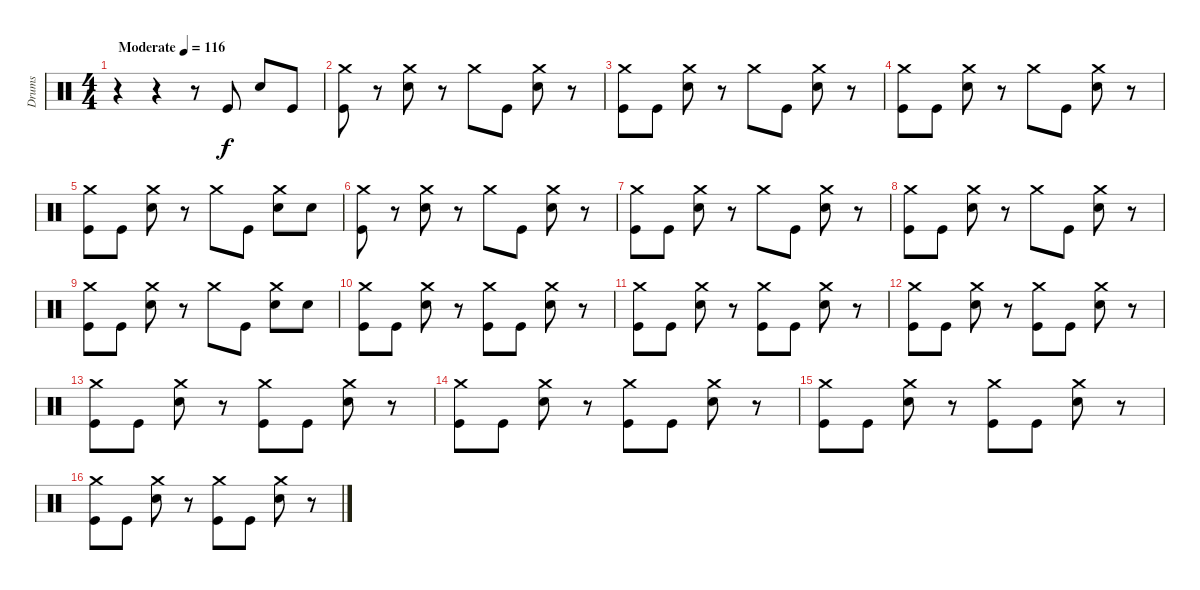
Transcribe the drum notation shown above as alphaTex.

\track ("Drums" "Drums") {instrument percussion}
\staff {score}
\articulation defaults
\ts (4 4)
\tempo (116 "Moderate")
\clef neutral
\ks c
r.4{dy f} r.4 r.8 "Kick (hit)".8 "Snare (hit) 2".8 "Kick (hit)".8 |
("Crash medium (hit)" "Kick (hit)").8 r.8 ("Crash medium (hit)" "Snare (hit) 2").8 r.8 "Crash medium (hit)".8 "Kick (hit)".8 ("Crash medium (hit)" "Snare (hit) 2").8 r.8 |
("Crash medium (hit)" "Kick (hit)").8 "Kick (hit)".8 ("Crash medium (hit)" "Snare (hit) 2").8 r.8 "Crash medium (hit)".8 "Kick (hit)".8 ("Crash medium (hit)" "Snare (hit) 2").8 r.8 |
("Crash medium (hit)" "Kick (hit)").8 "Kick (hit)".8 ("Crash medium (hit)" "Snare (hit) 2").8 r.8 "Crash medium (hit)".8 "Kick (hit)".8 ("Crash medium (hit)" "Snare (hit) 2").8 r.8 |
("Crash medium (hit)" "Kick (hit)").8 "Kick (hit)".8 ("Crash medium (hit)" "Snare (hit) 2").8 r.8 "Crash medium (hit)".8 "Kick (hit)".8 ("Crash medium (hit)" "Snare (hit) 2").8 "Snare (hit) 2".8 |
("Crash medium (hit)" "Kick (hit)").8 r.8 ("Crash medium (hit)" "Snare (hit) 2").8 r.8 "Crash medium (hit)".8 "Kick (hit)".8 ("Crash medium (hit)" "Snare (hit) 2").8 r.8 |
("Crash medium (hit)" "Kick (hit)").8 "Kick (hit)".8 ("Crash medium (hit)" "Snare (hit) 2").8 r.8 "Crash medium (hit)".8 "Kick (hit)".8 ("Crash medium (hit)" "Snare (hit) 2").8 r.8 |
("Crash medium (hit)" "Kick (hit)").8 "Kick (hit)".8 ("Crash medium (hit)" "Snare (hit) 2").8 r.8 "Crash medium (hit)".8 "Kick (hit)".8 ("Crash medium (hit)" "Snare (hit) 2").8 r.8 |
("Crash medium (hit)" "Kick (hit)").8 "Kick (hit)".8 ("Crash medium (hit)" "Snare (hit) 2").8 r.8 "Crash medium (hit)".8 "Kick (hit)".8 ("Crash medium (hit)" "Snare (hit) 2").8 "Snare (hit) 2".8 |
("Crash medium (hit)" "Kick (hit)").8 "Kick (hit)".8 ("Crash medium (hit)" "Snare (hit) 2").8 r.8 ("Crash medium (hit)" "Kick (hit)").8 "Kick (hit)".8 ("Crash medium (hit)" "Snare (hit) 2").8 r.8 |
("Crash medium (hit)" "Kick (hit)").8 "Kick (hit)".8 ("Crash medium (hit)" "Snare (hit) 2").8 r.8 ("Crash medium (hit)" "Kick (hit)").8 "Kick (hit)".8 ("Crash medium (hit)" "Snare (hit) 2").8 r.8 |
("Crash medium (hit)" "Kick (hit)").8 "Kick (hit)".8 ("Crash medium (hit)" "Snare (hit) 2").8 r.8 ("Crash medium (hit)" "Kick (hit)").8 "Kick (hit)".8 ("Crash medium (hit)" "Snare (hit) 2").8 r.8 |
("Crash medium (hit)" "Kick (hit)").8 "Kick (hit)".8 ("Crash medium (hit)" "Snare (hit) 2").8 r.8 ("Crash medium (hit)" "Kick (hit)").8 "Kick (hit)".8 ("Crash medium (hit)" "Snare (hit) 2").8 r.8 |
("Crash medium (hit)" "Kick (hit)").8 "Kick (hit)".8 ("Crash medium (hit)" "Snare (hit) 2").8 r.8 ("Crash medium (hit)" "Kick (hit)").8 "Kick (hit)".8 ("Crash medium (hit)" "Snare (hit) 2").8 r.8 |
("Crash medium (hit)" "Kick (hit)").8 "Kick (hit)".8 ("Crash medium (hit)" "Snare (hit) 2").8 r.8 ("Crash medium (hit)" "Kick (hit)").8 "Kick (hit)".8 ("Crash medium (hit)" "Snare (hit) 2").8 r.8 |
("Crash medium (hit)" "Kick (hit)").8 "Kick (hit)".8 ("Crash medium (hit)" "Snare (hit) 2").8 r.8 ("Crash medium (hit)" "Kick (hit)").8 "Kick (hit)".8 ("Crash medium (hit)" "Snare (hit) 2").8 r.8
